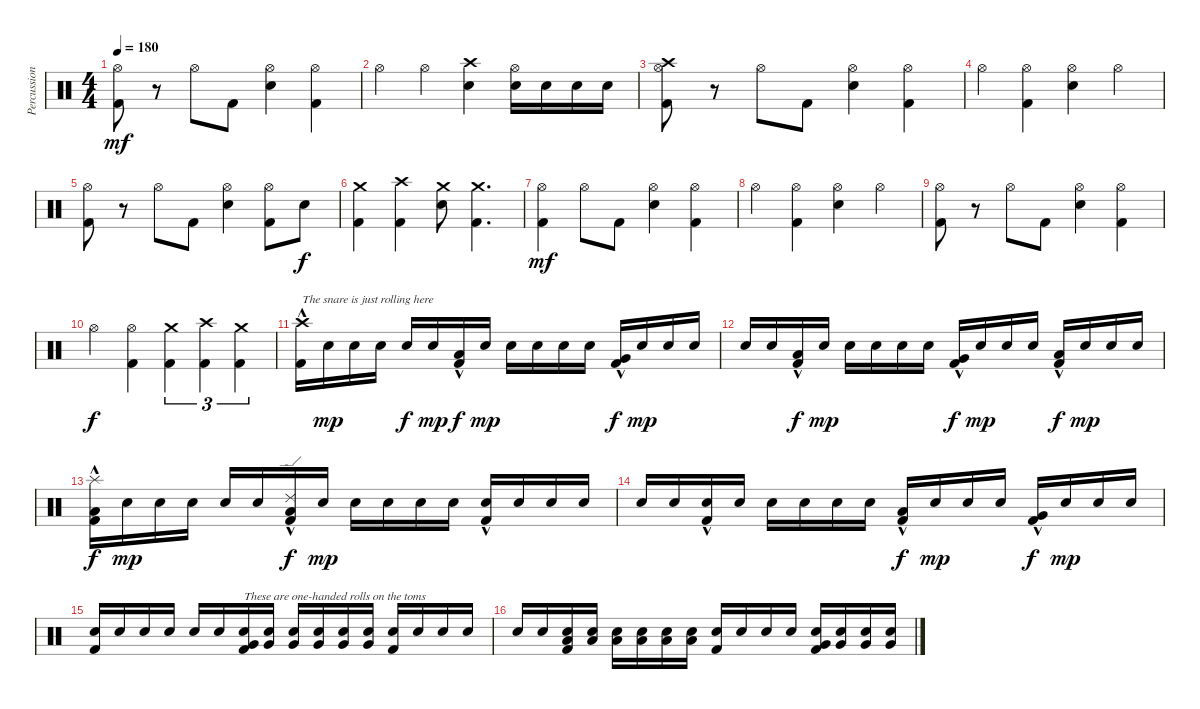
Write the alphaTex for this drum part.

\track ("Percussion" "Percussion") {instrument percussion}
\staff {score}
\articulation defaults
\ts (4 4)
\tempo 180
\clef neutral
\ks c
("Hi-Hat (open)" "Kick (hit) 2").8{dy mf} r.8 "Hi-Hat (open)".8 "Kick (hit) 2".8 ("Hi-Hat (open)" "Electric Snare (hit)").4 ("Hi-Hat (open)" "Kick (hit) 2").4 |
"Hi-Hat (open)".4 "Hi-Hat (open)".4 ("Crash high (hit)" "Electric Snare (hit)").4 ("Hi-Hat (open)" "Electric Snare (hit)").16 "Electric Snare (hit)".16 "Electric Snare (hit)".16 "Electric Snare (hit)".16 |
("Crash high (hit)" "Hi-Hat (open)" "Kick (hit) 2").8 r.8 "Hi-Hat (open)".8 "Kick (hit) 2".8 ("Hi-Hat (open)" "Electric Snare (hit)").4 ("Hi-Hat (open)" "Kick (hit) 2").4 |
"Hi-Hat (open)".4 ("Hi-Hat (open)" "Kick (hit) 2").4 ("Hi-Hat (open)" "Electric Snare (hit)").4 "Hi-Hat (open)".4 |
("Hi-Hat (open)" "Kick (hit) 2").8 r.8 "Hi-Hat (open)".8 "Kick (hit) 2".8 ("Hi-Hat (open)" "Electric Snare (hit)").4 ("Hi-Hat (open)" "Kick (hit) 2").8 "Electric Snare (hit)".8{dy f} |
("Crash medium (hit)" "Kick (hit) 2").4 ("Crash high (hit)" "Kick (hit) 2").4 ("Crash medium (hit)" "Electric Snare (hit)").8 ("Crash medium (hit)" "Kick (hit) 2").4{d} |
("Hi-Hat (open)" "Kick (hit) 2").4{dy mf} "Hi-Hat (open)".8 "Kick (hit) 2".8 ("Hi-Hat (open)" "Electric Snare (hit)").4 ("Hi-Hat (open)" "Kick (hit) 2").4 |
"Hi-Hat (open)".4 ("Hi-Hat (open)" "Kick (hit) 2").4 ("Hi-Hat (open)" "Electric Snare (hit)").4 "Hi-Hat (open)".4 |
("Hi-Hat (open)" "Kick (hit) 2").8 r.8 "Hi-Hat (open)".8 "Kick (hit) 2".8 ("Hi-Hat (open)" "Electric Snare (hit)").4 ("Hi-Hat (open)" "Kick (hit) 2").4 |
"Hi-Hat (open)".4{dy f} ("Hi-Hat (open)" "Kick (hit) 2").4 ("Crash medium (hit)" "Kick (hit) 2").4{tu (3 2)} ("Crash high (hit)" "Kick (hit) 2").4{tu (3 2)} ("Crash medium (hit)" "Kick (hit) 2").4{tu (3 2)} |
("Crash high (hit)"{hac} "Kick (hit) 2").16{txt "The snare is just rolling here"} "Electric Snare (hit)".16{dy mp} "Electric Snare (hit)".16 "Electric Snare (hit)".16 "Electric Snare (hit)".16{dy f} "Electric Snare (hit)".16{dy mp} ("Low Tom (hit)"{hac} "Kick (hit) 2").16{dy f} "Electric Snare (hit)".16{dy mp} "Electric Snare (hit)".16 "Electric Snare (hit)".16 "Electric Snare (hit)".16 "Electric Snare (hit)".16 ("Very Low Tom (hit)"{hac} "Kick (hit) 2").16{dy f} "Electric Snare (hit)".16{dy mp} "Electric Snare (hit)".16 "Electric Snare (hit)".16 |
"Electric Snare (hit)".16 "Electric Snare (hit)".16 ("Low Floor Tom (hit)"{hac} "Kick (hit) 2").16{dy f} "Electric Snare (hit)".16{dy mp} "Electric Snare (hit)".16 "Electric Snare (hit)".16 "Electric Snare (hit)".16 "Electric Snare (hit)".16 ("Very Low Tom (hit)"{hac} "Kick (hit) 2").16{dy f} "Electric Snare (hit)".16{dy mp} "Electric Snare (hit)".16 "Electric Snare (hit)".16 ("Low Floor Tom (hit)"{hac} "Kick (hit) 2").16{dy f} "Electric Snare (hit)".16{dy mp} "Electric Snare (hit)".16 "Electric Snare (hit)".16 |
("Low Floor Tom (hit)"{hac} "Splash (hit)" "Kick (hit) 2").16{dy f} "Electric Snare (hit)".16{dy mp} "Electric Snare (hit)".16 "Electric Snare (hit)".16 "Electric Snare (hit)".16 "Electric Snare (hit)".16 ("Low Tom (hit)"{hac} "Ride (edge) 2" "Kick (hit) 2").16{dy f} "Electric Snare (hit)".16{dy mp} "Electric Snare (hit)".16 "Electric Snare (hit)".16 "Electric Snare (hit)".16 "Electric Snare (hit)".16 ("Electric Snare (hit)"{hac} "Kick (hit) 2").16 "Electric Snare (hit)".16 "Electric Snare (hit)".16 "Electric Snare (hit)".16 |
"Electric Snare (hit)".16 "Electric Snare (hit)".16 ("Electric Snare (hit)"{hac} "Kick (hit) 2").16 "Electric Snare (hit)".16 "Electric Snare (hit)".16 "Electric Snare (hit)".16 "Electric Snare (hit)".16 "Electric Snare (hit)".16 ("Low Tom (hit)"{hac} "Kick (hit) 2").16{dy f} "Electric Snare (hit)".16{dy mp} "Electric Snare (hit)".16 "Electric Snare (hit)".16 ("Very Low Tom (hit)"{hac} "Kick (hit) 2").16{dy f} "Electric Snare (hit)".16{dy mp} "Electric Snare (hit)".16 "Electric Snare (hit)".16 |
("Electric Snare (hit)" "Kick (hit) 2").16 "Electric Snare (hit)".16 "Electric Snare (hit)".16 "Electric Snare (hit)".16 "Electric Snare (hit)".16 "Electric Snare (hit)".16 ("Electric Snare (hit)" "Very Low Tom (hit)" "Kick (hit) 2").16{txt "These are one-handed rolls on the toms"} ("Electric Snare (hit)" "Very Low Tom (hit)").16 ("Electric Snare (hit)" "Very Low Tom (hit)").16 ("Electric Snare (hit)" "Very Low Tom (hit)").16 ("Electric Snare (hit)" "Very Low Tom (hit)").16 ("Electric Snare (hit)" "Very Low Tom (hit)").16 ("Electric Snare (hit)" "Kick (hit) 2").16 "Electric Snare (hit)".16 "Electric Snare (hit)".16 "Electric Snare (hit)".16 |
"Electric Snare (hit)".16 "Electric Snare (hit)".16 ("Electric Snare (hit)" "Low Floor Tom (hit)" "Kick (hit) 2").16 ("Electric Snare (hit)" "Low Floor Tom (hit)").16 ("Electric Snare (hit)" "Low Floor Tom (hit)").16 ("Electric Snare (hit)" "Low Floor Tom (hit)").16 ("Electric Snare (hit)" "Low Floor Tom (hit)").16 ("Electric Snare (hit)" "Low Floor Tom (hit)").16 ("Electric Snare (hit)" "Kick (hit) 2").16 "Electric Snare (hit)".16 "Electric Snare (hit)".16 "Electric Snare (hit)".16 ("Electric Snare (hit)" "Very Low Tom (hit)" "Kick (hit) 2").16 ("Electric Snare (hit)" "Very Low Tom (hit)").16 ("Electric Snare (hit)" "Very Low Tom (hit)").16 ("Electric Snare (hit)" "Very Low Tom (hit)").16
